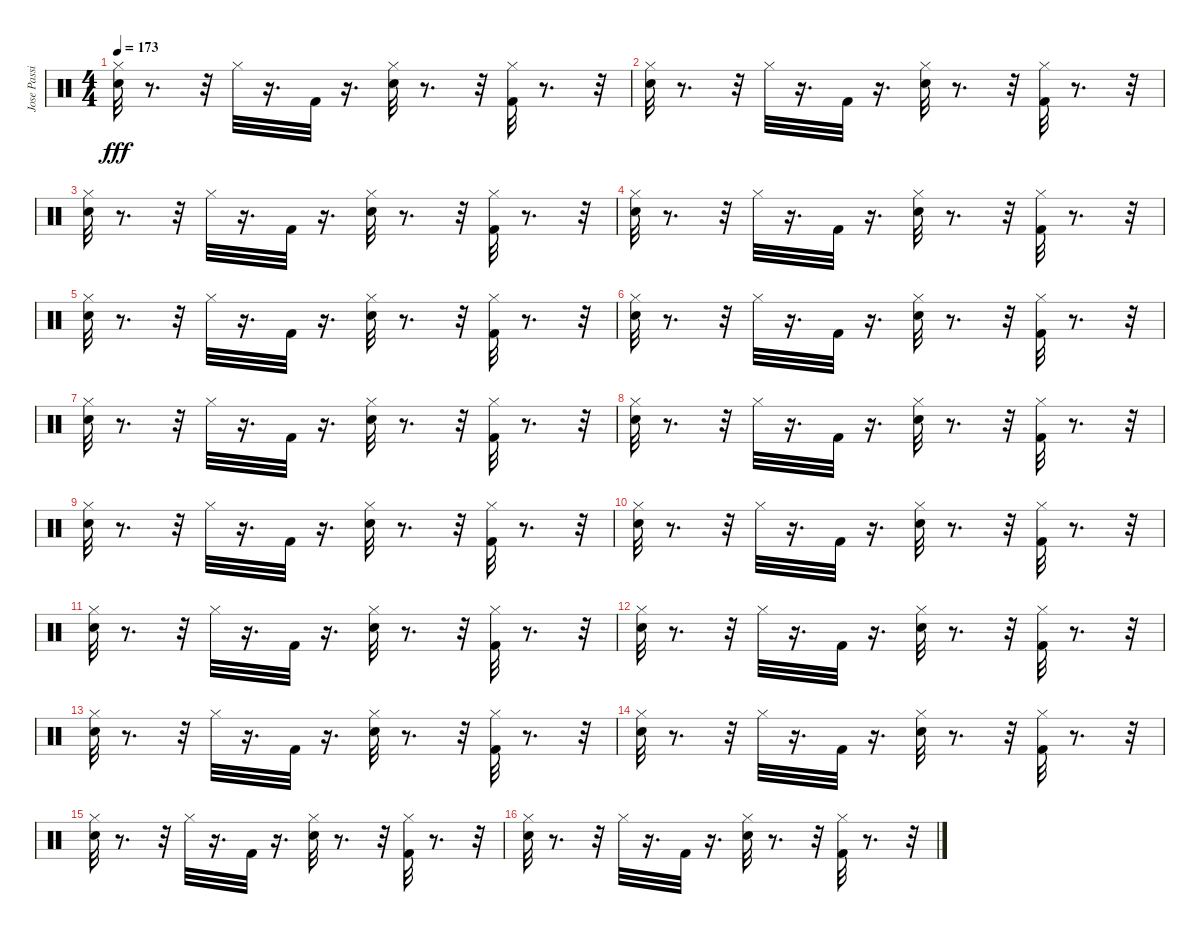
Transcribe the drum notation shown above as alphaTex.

\track ("Jose Passilas-Drums" "Jose Passi") {instrument percussion}
\staff {score}
\articulation defaults
\ts (4 4)
\tempo 173
\clef neutral
\ks c
("Hi-Hat (closed)" "Electric Snare (hit)").32{dy fff} r.8{d} r.32 "Hi-Hat (closed)".32 r.16{d} "Kick (hit) 2".32 r.16{d} ("Hi-Hat (closed)" "Electric Snare (hit)").32 r.8{d} r.32 ("Hi-Hat (closed)" "Kick (hit) 2").32 r.8{d} r.32 |
("Hi-Hat (closed)" "Electric Snare (hit)").32 r.8{d} r.32 "Hi-Hat (closed)".32 r.16{d} "Kick (hit) 2".32 r.16{d} ("Hi-Hat (closed)" "Electric Snare (hit)").32 r.8{d} r.32 ("Hi-Hat (closed)" "Kick (hit) 2").32 r.8{d} r.32 |
("Electric Snare (hit)" "Hi-Hat (closed)").32 r.8{d} r.32 "Hi-Hat (closed)".32 r.16{d} "Kick (hit) 2".32 r.16{d} ("Electric Snare (hit)" "Hi-Hat (closed)").32 r.8{d} r.32 ("Kick (hit) 2" "Hi-Hat (closed)").32 r.8{d} r.32 |
("Electric Snare (hit)" "Hi-Hat (closed)").32 r.8{d} r.32 "Hi-Hat (closed)".32 r.16{d} "Kick (hit) 2".32 r.16{d} ("Electric Snare (hit)" "Hi-Hat (closed)").32 r.8{d} r.32 ("Hi-Hat (closed)" "Kick (hit) 2").32 r.8{d} r.32 |
("Electric Snare (hit)" "Hi-Hat (closed)").32 r.8{d} r.32 "Hi-Hat (closed)".32 r.16{d} "Kick (hit) 2".32 r.16{d} ("Electric Snare (hit)" "Hi-Hat (closed)").32 r.8{d} r.32 ("Kick (hit) 2" "Hi-Hat (closed)").32 r.8{d} r.32 |
("Electric Snare (hit)" "Hi-Hat (closed)").32 r.8{d} r.32 "Hi-Hat (closed)".32 r.16{d} "Kick (hit) 2".32 r.16{d} ("Electric Snare (hit)" "Hi-Hat (closed)").32 r.8{d} r.32 ("Hi-Hat (closed)" "Kick (hit) 2").32 r.8{d} r.32 |
("Electric Snare (hit)" "Hi-Hat (closed)").32 r.8{d} r.32 "Hi-Hat (closed)".32 r.16{d} "Kick (hit) 2".32 r.16{d} ("Electric Snare (hit)" "Hi-Hat (closed)").32 r.8{d} r.32 ("Kick (hit) 2" "Hi-Hat (closed)").32 r.8{d} r.32 |
("Electric Snare (hit)" "Hi-Hat (closed)").32 r.8{d} r.32 "Hi-Hat (closed)".32 r.16{d} "Kick (hit) 2".32 r.16{d} ("Electric Snare (hit)" "Hi-Hat (closed)").32 r.8{d} r.32 ("Kick (hit) 2" "Hi-Hat (closed)").32 r.8{d} r.32 |
("Hi-Hat (closed)" "Electric Snare (hit)").32 r.8{d} r.32 "Hi-Hat (closed)".32 r.16{d} "Kick (hit) 2".32 r.16{d} ("Hi-Hat (closed)" "Electric Snare (hit)").32 r.8{d} r.32 ("Hi-Hat (closed)" "Kick (hit) 2").32 r.8{d} r.32 |
("Hi-Hat (closed)" "Electric Snare (hit)").32 r.8{d} r.32 "Hi-Hat (closed)".32 r.16{d} "Kick (hit) 2".32 r.16{d} ("Hi-Hat (closed)" "Electric Snare (hit)").32 r.8{d} r.32 ("Kick (hit) 2" "Hi-Hat (closed)").32 r.8{d} r.32 |
("Hi-Hat (closed)" "Electric Snare (hit)").32 r.8{d} r.32 "Hi-Hat (closed)".32 r.16{d} "Kick (hit) 2".32 r.16{d} ("Hi-Hat (closed)" "Electric Snare (hit)").32 r.8{d} r.32 ("Hi-Hat (closed)" "Kick (hit) 2").32 r.8{d} r.32 |
("Hi-Hat (closed)" "Electric Snare (hit)").32 r.8{d} r.32 "Hi-Hat (closed)".32 r.16{d} "Kick (hit) 2".32 r.16{d} ("Hi-Hat (closed)" "Electric Snare (hit)").32 r.8{d} r.32 ("Kick (hit) 2" "Hi-Hat (closed)").32 r.8{d} r.32 |
("Hi-Hat (closed)" "Electric Snare (hit)").32 r.8{d} r.32 "Hi-Hat (closed)".32 r.16{d} "Kick (hit) 2".32 r.16{d} ("Hi-Hat (closed)" "Electric Snare (hit)").32 r.8{d} r.32 ("Hi-Hat (closed)" "Kick (hit) 2").32 r.8{d} r.32 |
("Hi-Hat (closed)" "Electric Snare (hit)").32 r.8{d} r.32 "Hi-Hat (closed)".32 r.16{d} "Kick (hit) 2".32 r.16{d} ("Hi-Hat (closed)" "Electric Snare (hit)").32 r.8{d} r.32 ("Kick (hit) 2" "Hi-Hat (closed)").32 r.8{d} r.32 |
("Hi-Hat (closed)" "Electric Snare (hit)").32 r.8{d} r.32 "Hi-Hat (closed)".32 r.16{d} "Kick (hit) 2".32 r.16{d} ("Hi-Hat (closed)" "Electric Snare (hit)").32 r.8{d} r.32 ("Hi-Hat (closed)" "Kick (hit) 2").32 r.8{d} r.32 |
("Hi-Hat (closed)" "Electric Snare (hit)").32 r.8{d} r.32 "Hi-Hat (closed)".32 r.16{d} "Kick (hit) 2".32 r.16{d} ("Hi-Hat (closed)" "Electric Snare (hit)").32 r.8{d} r.32 ("Hi-Hat (closed)" "Kick (hit) 2").32 r.8{d} r.32
